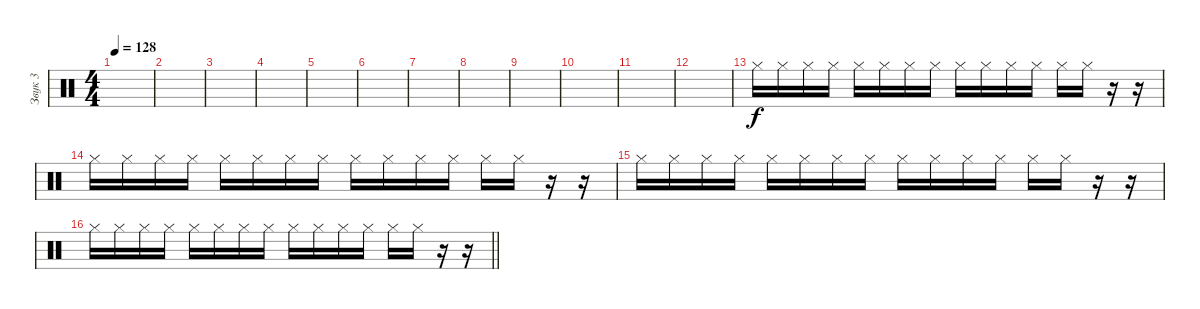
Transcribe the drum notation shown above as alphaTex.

\track ("Звук 3" "Звук 3") {instrument percussion}
\staff {score}
\articulation defaults
\ts (4 4)
\tempo 128
\clef neutral
\ks c
|
|
|
|
|
|
|
|
|
|
|
|
"Hi-Hat (closed)".16 "Hi-Hat (closed)".16 "Hi-Hat (closed)".16 "Hi-Hat (closed)".16 "Hi-Hat (closed)".16 "Hi-Hat (closed)".16 "Hi-Hat (closed)".16 "Hi-Hat (closed)".16 "Hi-Hat (closed)".16 "Hi-Hat (closed)".16 "Hi-Hat (closed)".16 "Hi-Hat (closed)".16 "Hi-Hat (closed)".16 "Hi-Hat (closed)".16 r.16 r.16 |
"Hi-Hat (closed)".16 "Hi-Hat (closed)".16 "Hi-Hat (closed)".16 "Hi-Hat (closed)".16 "Hi-Hat (closed)".16 "Hi-Hat (closed)".16 "Hi-Hat (closed)".16 "Hi-Hat (closed)".16 "Hi-Hat (closed)".16 "Hi-Hat (closed)".16 "Hi-Hat (closed)".16 "Hi-Hat (closed)".16 "Hi-Hat (closed)".16 "Hi-Hat (closed)".16 r.16 r.16 |
"Hi-Hat (closed)".16 "Hi-Hat (closed)".16 "Hi-Hat (closed)".16 "Hi-Hat (closed)".16 "Hi-Hat (closed)".16 "Hi-Hat (closed)".16 "Hi-Hat (closed)".16 "Hi-Hat (closed)".16 "Hi-Hat (closed)".16 "Hi-Hat (closed)".16 "Hi-Hat (closed)".16 "Hi-Hat (closed)".16 "Hi-Hat (closed)".16 "Hi-Hat (closed)".16 r.16 r.16 |
\barLineRight lightlight "Hi-Hat (closed)".16 "Hi-Hat (closed)".16 "Hi-Hat (closed)".16 "Hi-Hat (closed)".16 "Hi-Hat (closed)".16 "Hi-Hat (closed)".16 "Hi-Hat (closed)".16 "Hi-Hat (closed)".16 "Hi-Hat (closed)".16 "Hi-Hat (closed)".16 "Hi-Hat (closed)".16 "Hi-Hat (closed)".16 "Hi-Hat (closed)".16 "Hi-Hat (closed)".16
r.16 r.16
